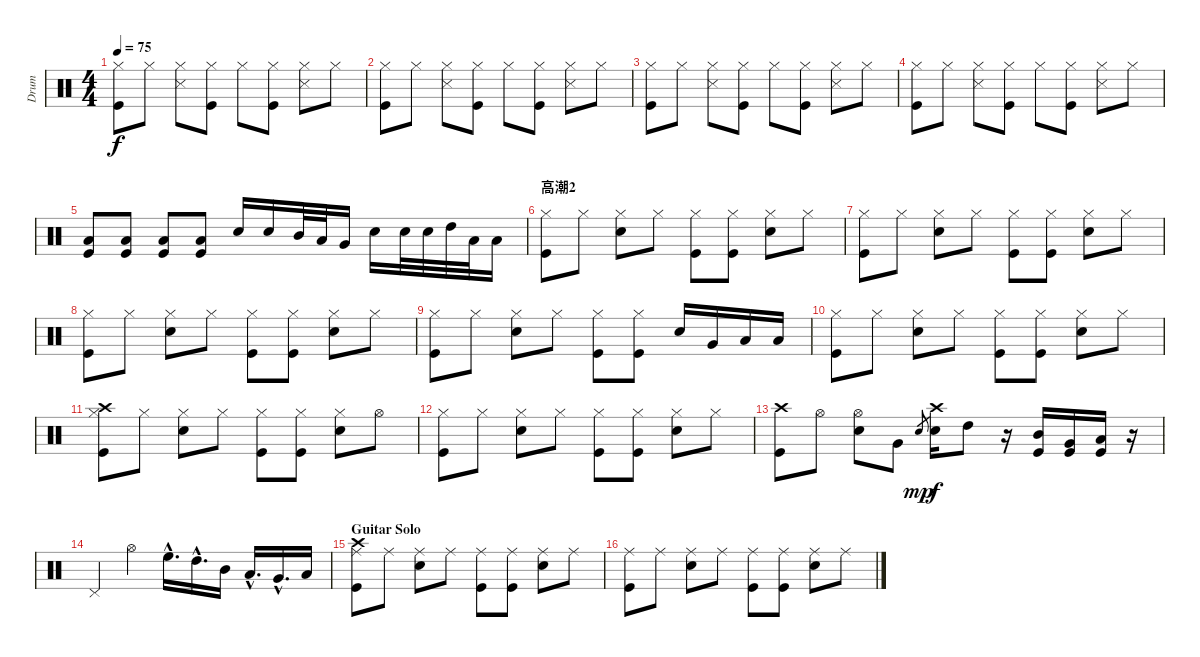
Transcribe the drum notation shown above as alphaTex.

\track ("Drum" "Drum") {instrument percussion}
\staff {score}
\articulation defaults
\ts (4 4)
\tempo 75
\clef neutral
\ks c
("Hi-Hat (closed)" "Kick (hit)").8{dy f} "Hi-Hat (closed)".8 ("Hi-Hat (closed)" "Snare (side stick) 3").8 ("Hi-Hat (closed)" "Kick (hit)").8 "Hi-Hat (closed)".8 ("Hi-Hat (closed)" "Kick (hit)").8 ("Hi-Hat (closed)" "Snare (side stick) 3").8 "Hi-Hat (closed)".8 |
("Hi-Hat (closed)" "Kick (hit)").8 "Hi-Hat (closed)".8 ("Hi-Hat (closed)" "Snare (side stick) 3").8 ("Hi-Hat (closed)" "Kick (hit)").8 "Hi-Hat (closed)".8 ("Hi-Hat (closed)" "Kick (hit)").8 ("Hi-Hat (closed)" "Snare (side stick) 3").8 "Hi-Hat (closed)".8 |
("Hi-Hat (closed)" "Kick (hit)").8 "Hi-Hat (closed)".8 ("Hi-Hat (closed)" "Snare (side stick) 3").8 ("Hi-Hat (closed)" "Kick (hit)").8 "Hi-Hat (closed)".8 ("Hi-Hat (closed)" "Kick (hit)").8 ("Hi-Hat (closed)" "Snare (side stick) 3").8 "Hi-Hat (closed)".8 |
("Hi-Hat (closed)" "Kick (hit)").8 "Hi-Hat (closed)".8 ("Hi-Hat (closed)" "Snare (side stick) 3").8 ("Hi-Hat (closed)" "Kick (hit)").8 "Hi-Hat (closed)".8 ("Hi-Hat (closed)" "Kick (hit)").8 ("Hi-Hat (closed)" "Snare (side stick) 3").8 "Hi-Hat (closed)".8 |
("Low Floor Tom (hit)" "Kick (hit)").8 ("Low Floor Tom (hit)" "Kick (hit)").8 ("Low Floor Tom (hit)" "Kick (hit)").8 ("Low Floor Tom (hit)" "Kick (hit)").8 "Snare (hit) 2".16 "Snare (hit) 2".16 "Mid Tom (hit)".32 "Low Tom (hit)".32 "Very Low Tom (hit)".16 "Snare (hit) 2".16 "Snare (hit) 2".32 "Snare (hit) 2".32 "High Tom (hit)".32 "Low Tom (hit)".32 "Low Floor Tom (hit)".16 |
\section ("" "高潮2")
("Hi-Hat (closed)" "Kick (hit)").8 "Hi-Hat (closed)".8 ("Hi-Hat (closed)" "Electric Snare (hit)").8 "Hi-Hat (closed)".8 ("Hi-Hat (closed)" "Kick (hit)").8 ("Hi-Hat (closed)" "Kick (hit)").8 ("Hi-Hat (closed)" "Electric Snare (hit)").8 "Hi-Hat (closed)".8 |
("Hi-Hat (closed)" "Kick (hit)").8 "Hi-Hat (closed)".8 ("Hi-Hat (closed)" "Electric Snare (hit)").8 "Hi-Hat (closed)".8 ("Hi-Hat (closed)" "Kick (hit)").8 ("Hi-Hat (closed)" "Kick (hit)").8 ("Hi-Hat (closed)" "Electric Snare (hit)").8 "Hi-Hat (closed)".8 |
("Hi-Hat (closed)" "Kick (hit)").8 "Hi-Hat (closed)".8 ("Hi-Hat (closed)" "Electric Snare (hit)").8 "Hi-Hat (closed)".8 ("Hi-Hat (closed)" "Kick (hit)").8 ("Hi-Hat (closed)" "Kick (hit)").8 ("Hi-Hat (closed)" "Electric Snare (hit)").8 "Hi-Hat (closed)".8 |
("Hi-Hat (closed)" "Kick (hit)").8 "Hi-Hat (closed)".8 ("Hi-Hat (closed)" "Electric Snare (hit)").8 "Hi-Hat (closed)".8 ("Hi-Hat (closed)" "Kick (hit)").8 ("Hi-Hat (closed)" "Kick (hit)").8 "Electric Snare (hit)".16 "Very Low Tom (hit)".16 "Low Floor Tom (hit)".16 "Low Floor Tom (hit)".16 |
("Hi-Hat (closed)" "Kick (hit)").8 "Hi-Hat (closed)".8 ("Hi-Hat (closed)" "Electric Snare (hit)").8 "Hi-Hat (closed)".8 ("Hi-Hat (closed)" "Kick (hit)").8 ("Hi-Hat (closed)" "Kick (hit)").8 ("Hi-Hat (closed)" "Electric Snare (hit)").8 "Hi-Hat (closed)".8 |
("Hi-Hat (closed)" "Crash high (hit)" "Kick (hit)").8 "Hi-Hat (closed)".8 ("Hi-Hat (closed)" "Electric Snare (hit)").8 "Hi-Hat (closed)".8 ("Hi-Hat (closed)" "Kick (hit)").8 ("Hi-Hat (closed)" "Kick (hit)").8 ("Hi-Hat (closed)" "Electric Snare (hit)").8 "Hi-Hat (open)".8 |
("Hi-Hat (closed)" "Kick (hit)").8 "Hi-Hat (closed)".8 ("Hi-Hat (closed)" "Electric Snare (hit)").8 "Hi-Hat (closed)".8 ("Hi-Hat (closed)" "Kick (hit)").8 ("Hi-Hat (closed)" "Kick (hit)").8 ("Hi-Hat (closed)" "Electric Snare (hit)").8 "Hi-Hat (closed)".8 |
("Crash high (hit)" "Kick (hit)").8 "Hi-Hat (open)".8 ("Hi-Hat (open)" "Snare (hit) 2").8 "Very Low Tom (hit)".8 "Electric Snare (hit)".8{gr dy mp} ("Crash high (hit)" "Electric Snare (hit)").16{dy f} "High Tom (hit)".8 r.16 ("Mid Tom (hit)" "Kick (hit)").16 ("Very Low Tom (hit)" "Kick (hit)").16 ("Low Floor Tom (hit)" "Kick (hit)").16 r.16 |
"Pedal Hi-Hat (hit)".4 "Hi-Hat (open)".4 "High Floor Tom (hit)"{hac}.16{d} "High Tom (hit)"{hac}.16{d} "Mid Tom (hit)".16 "Low Tom (hit)"{hac}.16{d} "Very Low Tom (hit)"{hac}.16{d} "Low Floor Tom (hit)".16 |
\section ("" "Guitar Solo")
("Ride (middle)" "Crash high (hit)" "Kick (hit)").8 "Ride (middle)".8 ("Ride (middle)" "Electric Snare (hit)").8 "Ride (middle)".8 ("Ride (middle)" "Kick (hit)").8 ("Ride (middle)" "Kick (hit)").8 ("Ride (middle)" "Electric Snare (hit)").8 "Ride (middle)".8 |
("Ride (middle)" "Kick (hit)").8 "Ride (middle)".8 ("Ride (middle)" "Electric Snare (hit)").8 "Ride (middle)".8 ("Ride (middle)" "Kick (hit)").8 ("Ride (middle)" "Kick (hit)").8 ("Ride (middle)" "Electric Snare (hit)").8 "Ride (middle)".8
